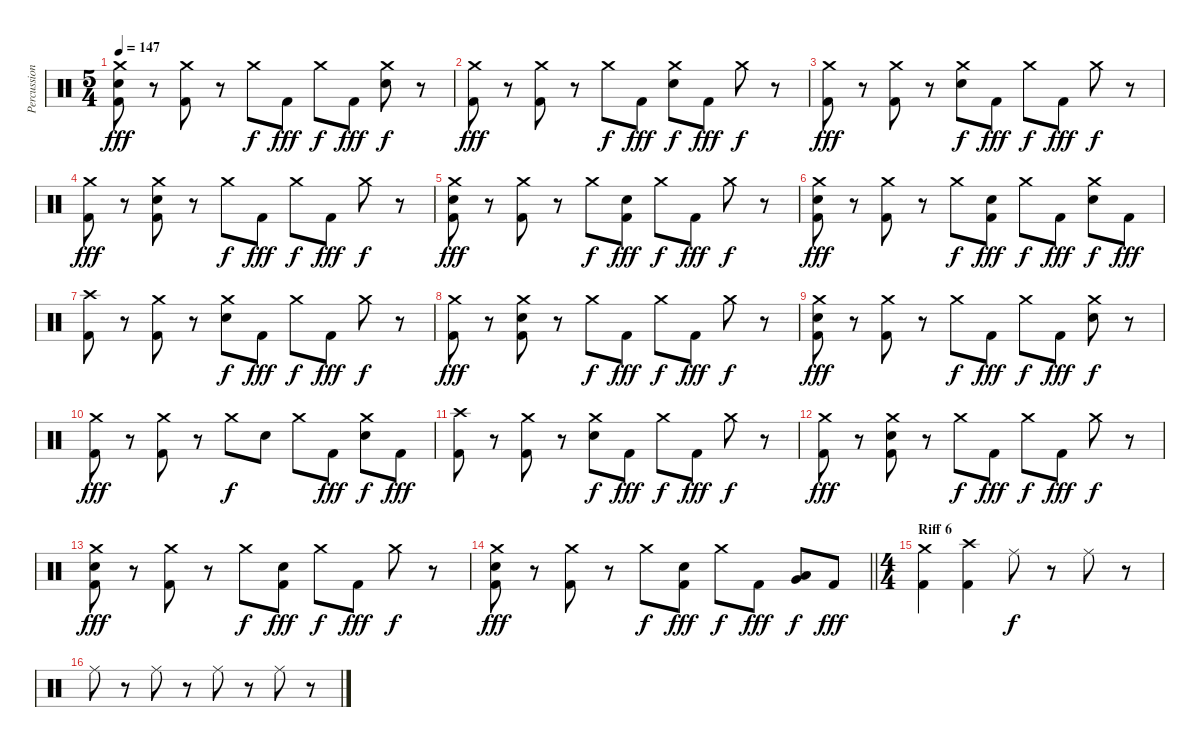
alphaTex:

\track ("Percussion" "Percussion") {instrument percussion}
\staff {score}
\articulation defaults
\ts (5 4)
\tempo 147
\clef neutral
\ks c
("Crash medium (hit)" "Electric Snare (hit)" "Kick (hit) 2").8{dy fff} r.8 ("Crash medium (hit)" "Kick (hit) 2").8 r.8 "Crash medium (hit)".8{dy f} "Kick (hit) 2".8{dy fff} "Crash medium (hit)".8{dy f} "Kick (hit) 2".8{dy fff} ("Crash medium (hit)" "Electric Snare (hit)").8{dy f} r.8 |
("Crash medium (hit)" "Kick (hit) 2").8{dy fff} r.8 ("Crash medium (hit)" "Kick (hit) 2").8 r.8 "Crash medium (hit)".8{dy f} "Kick (hit) 2".8{dy fff} ("Crash medium (hit)" "Electric Snare (hit)").8{dy f} "Kick (hit) 2".8{dy fff} "Crash medium (hit)".8{dy f} r.8 |
("Crash medium (hit)" "Kick (hit) 2").8{dy fff} r.8 ("Crash medium (hit)" "Kick (hit) 2").8 r.8 ("Crash medium (hit)" "Electric Snare (hit)").8{dy f} "Kick (hit) 2".8{dy fff} "Crash medium (hit)".8{dy f} "Kick (hit) 2".8{dy fff} "Crash medium (hit)".8{dy f} r.8 |
("Crash medium (hit)" "Kick (hit) 2").8{dy fff} r.8 ("Crash medium (hit)" "Electric Snare (hit)" "Kick (hit) 2").8 r.8 "Crash medium (hit)".8{dy f} "Kick (hit) 2".8{dy fff} "Crash medium (hit)".8{dy f} "Kick (hit) 2".8{dy fff} "Crash medium (hit)".8{dy f} r.8 |
("Crash medium (hit)" "Electric Snare (hit)" "Kick (hit) 2").8{dy fff} r.8 ("Crash medium (hit)" "Kick (hit) 2").8 r.8 "Crash medium (hit)".8{dy f} ("Electric Snare (hit)" "Kick (hit) 2").8{dy fff} "Crash medium (hit)".8{dy f} "Kick (hit) 2".8{dy fff} "Crash medium (hit)".8{dy f} r.8 |
("Crash medium (hit)" "Electric Snare (hit)" "Kick (hit) 2").8{dy fff} r.8 ("Crash medium (hit)" "Kick (hit) 2").8 r.8 "Crash medium (hit)".8{dy f} ("Electric Snare (hit)" "Kick (hit) 2").8{dy fff} "Crash medium (hit)".8{dy f} "Kick (hit) 2".8{dy fff} ("Crash medium (hit)" "Electric Snare (hit)").8{dy f} "Kick (hit) 2".8{dy fff} |
("Crash high (hit)" "Kick (hit) 2").8 r.8 ("Crash medium (hit)" "Kick (hit) 2").8 r.8 ("Crash medium (hit)" "Electric Snare (hit)").8{dy f} "Kick (hit) 2".8{dy fff} "Crash medium (hit)".8{dy f} "Kick (hit) 2".8{dy fff} "Crash medium (hit)".8{dy f} r.8 |
("Crash medium (hit)" "Kick (hit) 2").8{dy fff} r.8 ("Crash medium (hit)" "Electric Snare (hit)" "Kick (hit) 2").8 r.8 "Crash medium (hit)".8{dy f} "Kick (hit) 2".8{dy fff} "Crash medium (hit)".8{dy f} "Kick (hit) 2".8{dy fff} "Crash medium (hit)".8{dy f} r.8 |
("Crash medium (hit)" "Electric Snare (hit)" "Kick (hit) 2").8{dy fff} r.8 ("Crash medium (hit)" "Kick (hit) 2").8 r.8 "Crash medium (hit)".8{dy f} "Kick (hit) 2".8{dy fff} "Crash medium (hit)".8{dy f} "Kick (hit) 2".8{dy fff} ("Crash medium (hit)" "Electric Snare (hit)").8{dy f} r.8 |
("Crash medium (hit)" "Kick (hit) 2").8{dy fff} r.8 ("Crash medium (hit)" "Kick (hit) 2").8 r.8 "Crash medium (hit)".8{dy f} "Electric Snare (hit)".8 "Crash medium (hit)".8 "Kick (hit) 2".8{dy fff} ("Crash medium (hit)" "Electric Snare (hit)").8{dy f} "Kick (hit) 2".8{dy fff} |
("Crash high (hit)" "Kick (hit) 2").8 r.8 ("Crash medium (hit)" "Kick (hit) 2").8 r.8 ("Crash medium (hit)" "Electric Snare (hit)").8{dy f} "Kick (hit) 2".8{dy fff} "Crash medium (hit)".8{dy f} "Kick (hit) 2".8{dy fff} "Crash medium (hit)".8{dy f} r.8 |
("Crash medium (hit)" "Kick (hit) 2").8{dy fff} r.8 ("Crash medium (hit)" "Electric Snare (hit)" "Kick (hit) 2").8 r.8 "Crash medium (hit)".8{dy f} "Kick (hit) 2".8{dy fff} "Crash medium (hit)".8{dy f} "Kick (hit) 2".8{dy fff} "Crash medium (hit)".8{dy f} r.8 |
("Crash medium (hit)" "Electric Snare (hit)" "Kick (hit) 2").8{dy fff} r.8 ("Crash medium (hit)" "Kick (hit) 2").8 r.8 "Crash medium (hit)".8{dy f} ("Electric Snare (hit)" "Kick (hit) 2").8{dy fff} "Crash medium (hit)".8{dy f} "Kick (hit) 2".8{dy fff} "Crash medium (hit)".8{dy f} r.8 |
\barLineRight lightlight
("Crash medium (hit)" "Electric Snare (hit)" "Kick (hit) 2").8{dy fff} r.8 ("Crash medium (hit)" "Kick (hit) 2").8 r.8 "Crash medium (hit)".8{dy f} ("Electric Snare (hit)" "Kick (hit) 2").8{dy fff} "Crash medium (hit)".8{dy f} "Kick (hit) 2".8{dy fff} ("Very Low Tom (hit)" "Low Floor Tom (hit)").8{dy f} "Kick (hit) 2".8{dy fff} |
\ts (4 4)
\section ("" "Riff 6")
("Crash medium (hit)" "Kick (hit) 2").4 ("Crash high (hit)" "Kick (hit) 2").4 "Ride (middle)".8{dy f} r.8 "Ride (middle)".8 r.8 |
"Ride (middle)".8 r.8 "Ride (middle)".8 r.8 "Ride (middle)".8 r.8 "Ride (middle)".8 r.8
